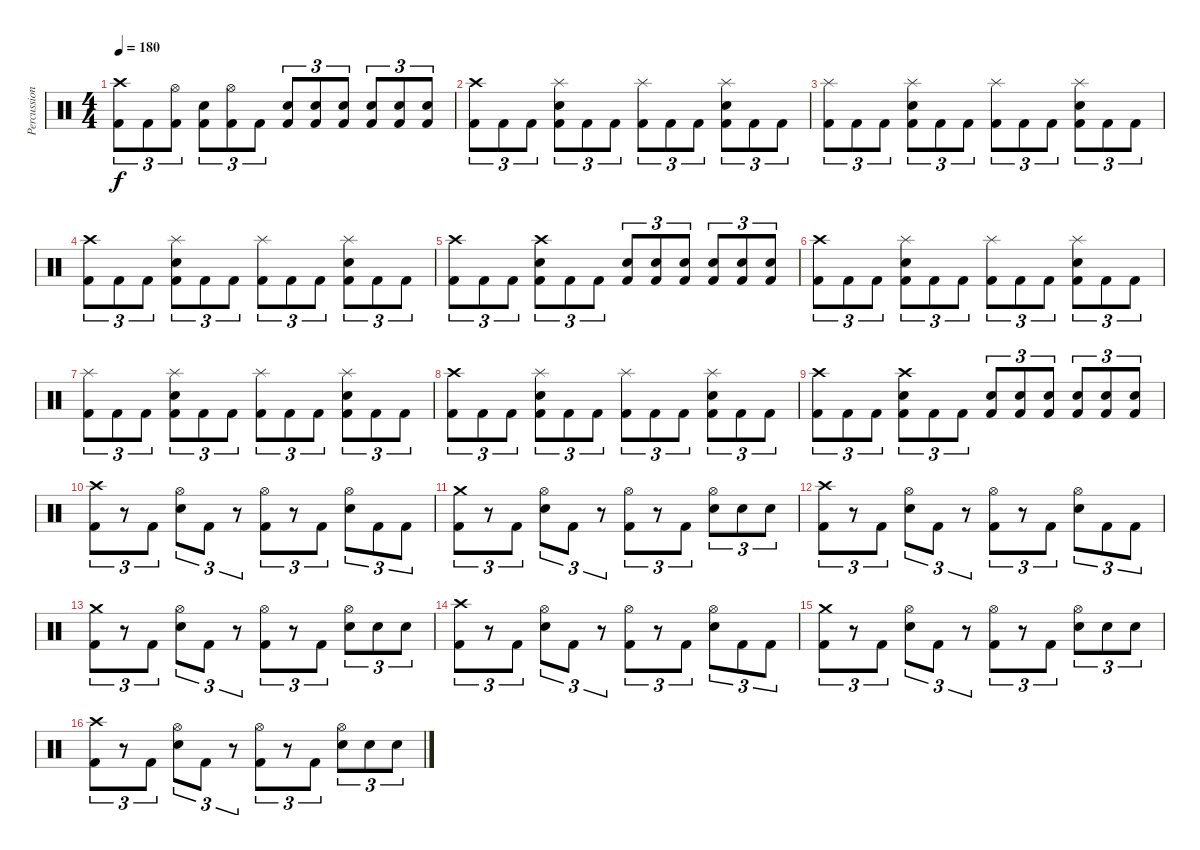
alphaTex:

\track ("Percussion" "Percussion") {instrument percussion}
\staff {score}
\articulation defaults
\ts (4 4)
\tempo 180
\clef neutral
\ks c
("Crash high (hit)" "Kick (hit) 2").8{tu (3 2) dy f} "Kick (hit) 2".8{tu (3 2)} ("Hi-Hat (open)" "Kick (hit) 2").8{tu (3 2)} ("Electric Snare (hit)" "Kick (hit) 2").8{tu (3 2)} ("Hi-Hat (open)" "Kick (hit) 2").8{tu (3 2)} "Kick (hit) 2".8{tu (3 2)} ("Electric Snare (hit)" "Kick (hit) 2").8{tu (3 2)} ("Electric Snare (hit)" "Kick (hit) 2").8{tu (3 2)} ("Electric Snare (hit)" "Kick (hit) 2").8{tu (3 2)} ("Electric Snare (hit)" "Kick (hit) 2").8{tu (3 2)} ("Electric Snare (hit)" "Kick (hit) 2").8{tu (3 2)} ("Electric Snare (hit)" "Kick (hit) 2").8{tu (3 2)} |
("Crash high (hit)" "Kick (hit) 2").8{tu (3 2)} "Kick (hit) 2".8{tu (3 2)} "Kick (hit) 2".8{tu (3 2)} ("Splash (hit)" "Electric Snare (hit)" "Kick (hit) 2").8{tu (3 2)} "Kick (hit) 2".8{tu (3 2)} "Kick (hit) 2".8{tu (3 2)} ("Splash (hit)" "Kick (hit) 2").8{tu (3 2)} "Kick (hit) 2".8{tu (3 2)} "Kick (hit) 2".8{tu (3 2)} ("Splash (hit)" "Electric Snare (hit)" "Kick (hit) 2").8{tu (3 2)} "Kick (hit) 2".8{tu (3 2)} "Kick (hit) 2".8{tu (3 2)} |
("Splash (hit)" "Kick (hit) 2").8{tu (3 2)} "Kick (hit) 2".8{tu (3 2)} "Kick (hit) 2".8{tu (3 2)} ("Splash (hit)" "Electric Snare (hit)" "Kick (hit) 2").8{tu (3 2)} "Kick (hit) 2".8{tu (3 2)} "Kick (hit) 2".8{tu (3 2)} ("Splash (hit)" "Kick (hit) 2").8{tu (3 2)} "Kick (hit) 2".8{tu (3 2)} "Kick (hit) 2".8{tu (3 2)} ("Splash (hit)" "Electric Snare (hit)" "Kick (hit) 2").8{tu (3 2)} "Kick (hit) 2".8{tu (3 2)} "Kick (hit) 2".8{tu (3 2)} |
("Crash high (hit)" "Kick (hit) 2").8{tu (3 2)} "Kick (hit) 2".8{tu (3 2)} "Kick (hit) 2".8{tu (3 2)} ("Splash (hit)" "Electric Snare (hit)" "Kick (hit) 2").8{tu (3 2)} "Kick (hit) 2".8{tu (3 2)} "Kick (hit) 2".8{tu (3 2)} ("Splash (hit)" "Kick (hit) 2").8{tu (3 2)} "Kick (hit) 2".8{tu (3 2)} "Kick (hit) 2".8{tu (3 2)} ("Splash (hit)" "Electric Snare (hit)" "Kick (hit) 2").8{tu (3 2)} "Kick (hit) 2".8{tu (3 2)} "Kick (hit) 2".8{tu (3 2)} |
("Crash high (hit)" "Kick (hit) 2").8{tu (3 2)} "Kick (hit) 2".8{tu (3 2)} "Kick (hit) 2".8{tu (3 2)} ("Crash high (hit)" "Electric Snare (hit)" "Kick (hit) 2").8{tu (3 2)} "Kick (hit) 2".8{tu (3 2)} "Kick (hit) 2".8{tu (3 2)} ("Electric Snare (hit)" "Kick (hit) 2").8{tu (3 2)} ("Electric Snare (hit)" "Kick (hit) 2").8{tu (3 2)} ("Electric Snare (hit)" "Kick (hit) 2").8{tu (3 2)} ("Electric Snare (hit)" "Kick (hit) 2").8{tu (3 2)} ("Electric Snare (hit)" "Kick (hit) 2").8{tu (3 2)} ("Electric Snare (hit)" "Kick (hit) 2").8{tu (3 2)} |
("Crash high (hit)" "Kick (hit) 2").8{tu (3 2)} "Kick (hit) 2".8{tu (3 2)} "Kick (hit) 2".8{tu (3 2)} ("Splash (hit)" "Electric Snare (hit)" "Kick (hit) 2").8{tu (3 2)} "Kick (hit) 2".8{tu (3 2)} "Kick (hit) 2".8{tu (3 2)} ("Splash (hit)" "Kick (hit) 2").8{tu (3 2)} "Kick (hit) 2".8{tu (3 2)} "Kick (hit) 2".8{tu (3 2)} ("Splash (hit)" "Electric Snare (hit)" "Kick (hit) 2").8{tu (3 2)} "Kick (hit) 2".8{tu (3 2)} "Kick (hit) 2".8{tu (3 2)} |
("Splash (hit)" "Kick (hit) 2").8{tu (3 2)} "Kick (hit) 2".8{tu (3 2)} "Kick (hit) 2".8{tu (3 2)} ("Splash (hit)" "Electric Snare (hit)" "Kick (hit) 2").8{tu (3 2)} "Kick (hit) 2".8{tu (3 2)} "Kick (hit) 2".8{tu (3 2)} ("Splash (hit)" "Kick (hit) 2").8{tu (3 2)} "Kick (hit) 2".8{tu (3 2)} "Kick (hit) 2".8{tu (3 2)} ("Splash (hit)" "Electric Snare (hit)" "Kick (hit) 2").8{tu (3 2)} "Kick (hit) 2".8{tu (3 2)} "Kick (hit) 2".8{tu (3 2)} |
("Crash high (hit)" "Kick (hit) 2").8{tu (3 2)} "Kick (hit) 2".8{tu (3 2)} "Kick (hit) 2".8{tu (3 2)} ("Splash (hit)" "Electric Snare (hit)" "Kick (hit) 2").8{tu (3 2)} "Kick (hit) 2".8{tu (3 2)} "Kick (hit) 2".8{tu (3 2)} ("Splash (hit)" "Kick (hit) 2").8{tu (3 2)} "Kick (hit) 2".8{tu (3 2)} "Kick (hit) 2".8{tu (3 2)} ("Splash (hit)" "Electric Snare (hit)" "Kick (hit) 2").8{tu (3 2)} "Kick (hit) 2".8{tu (3 2)} "Kick (hit) 2".8{tu (3 2)} |
("Crash high (hit)" "Kick (hit) 2").8{tu (3 2)} "Kick (hit) 2".8{tu (3 2)} "Kick (hit) 2".8{tu (3 2)} ("Crash high (hit)" "Electric Snare (hit)" "Kick (hit) 2").8{tu (3 2)} "Kick (hit) 2".8{tu (3 2)} "Kick (hit) 2".8{tu (3 2)} ("Electric Snare (hit)" "Kick (hit) 2").8{tu (3 2)} ("Electric Snare (hit)" "Kick (hit) 2").8{tu (3 2)} ("Electric Snare (hit)" "Kick (hit) 2").8{tu (3 2)} ("Electric Snare (hit)" "Kick (hit) 2").8{tu (3 2)} ("Electric Snare (hit)" "Kick (hit) 2").8{tu (3 2)} ("Electric Snare (hit)" "Kick (hit) 2").8{tu (3 2)} |
("Crash high (hit)" "Kick (hit) 2").8{tu (3 2)} r.8{tu (3 2)} "Kick (hit) 2".8{tu (3 2)} ("Hi-Hat (open)" "Electric Snare (hit)").8{tu (3 2)} "Kick (hit) 2".8{tu (3 2)} r.8{tu (3 2)} ("Hi-Hat (open)" "Kick (hit) 2").8{tu (3 2)} r.8{tu (3 2)} "Kick (hit) 2".8{tu (3 2)} ("Hi-Hat (open)" "Electric Snare (hit)").8{tu (3 2)} "Kick (hit) 2".8{tu (3 2)} "Kick (hit) 2".8{tu (3 2)} |
("Crash medium (hit)" "Kick (hit) 2").8{tu (3 2)} r.8{tu (3 2)} "Kick (hit) 2".8{tu (3 2)} ("Hi-Hat (open)" "Electric Snare (hit)").8{tu (3 2)} "Kick (hit) 2".8{tu (3 2)} r.8{tu (3 2)} ("Hi-Hat (open)" "Kick (hit) 2").8{tu (3 2)} r.8{tu (3 2)} "Kick (hit) 2".8{tu (3 2)} ("Hi-Hat (open)" "Electric Snare (hit)").8{tu (3 2)} "Electric Snare (hit)".8{tu (3 2)} "Electric Snare (hit)".8{tu (3 2)} |
("Crash high (hit)" "Kick (hit) 2").8{tu (3 2)} r.8{tu (3 2)} "Kick (hit) 2".8{tu (3 2)} ("Hi-Hat (open)" "Electric Snare (hit)").8{tu (3 2)} "Kick (hit) 2".8{tu (3 2)} r.8{tu (3 2)} ("Hi-Hat (open)" "Kick (hit) 2").8{tu (3 2)} r.8{tu (3 2)} "Kick (hit) 2".8{tu (3 2)} ("Hi-Hat (open)" "Electric Snare (hit)").8{tu (3 2)} "Kick (hit) 2".8{tu (3 2)} "Kick (hit) 2".8{tu (3 2)} |
("Crash medium (hit)" "Kick (hit) 2").8{tu (3 2)} r.8{tu (3 2)} "Kick (hit) 2".8{tu (3 2)} ("Hi-Hat (open)" "Electric Snare (hit)").8{tu (3 2)} "Kick (hit) 2".8{tu (3 2)} r.8{tu (3 2)} ("Hi-Hat (open)" "Kick (hit) 2").8{tu (3 2)} r.8{tu (3 2)} "Kick (hit) 2".8{tu (3 2)} ("Hi-Hat (open)" "Electric Snare (hit)").8{tu (3 2)} "Electric Snare (hit)".8{tu (3 2)} "Electric Snare (hit)".8{tu (3 2)} |
("Crash high (hit)" "Kick (hit) 2").8{tu (3 2)} r.8{tu (3 2)} "Kick (hit) 2".8{tu (3 2)} ("Hi-Hat (open)" "Electric Snare (hit)").8{tu (3 2)} "Kick (hit) 2".8{tu (3 2)} r.8{tu (3 2)} ("Hi-Hat (open)" "Kick (hit) 2").8{tu (3 2)} r.8{tu (3 2)} "Kick (hit) 2".8{tu (3 2)} ("Hi-Hat (open)" "Electric Snare (hit)").8{tu (3 2)} "Kick (hit) 2".8{tu (3 2)} "Kick (hit) 2".8{tu (3 2)} |
("Crash medium (hit)" "Kick (hit) 2").8{tu (3 2)} r.8{tu (3 2)} "Kick (hit) 2".8{tu (3 2)} ("Hi-Hat (open)" "Electric Snare (hit)").8{tu (3 2)} "Kick (hit) 2".8{tu (3 2)} r.8{tu (3 2)} ("Hi-Hat (open)" "Kick (hit) 2").8{tu (3 2)} r.8{tu (3 2)} "Kick (hit) 2".8{tu (3 2)} ("Hi-Hat (open)" "Electric Snare (hit)").8{tu (3 2)} "Electric Snare (hit)".8{tu (3 2)} "Electric Snare (hit)".8{tu (3 2)} |
("Crash high (hit)" "Kick (hit) 2").8{tu (3 2)} r.8{tu (3 2)} "Kick (hit) 2".8{tu (3 2)} ("Hi-Hat (open)" "Electric Snare (hit)").8{tu (3 2)} "Kick (hit) 2".8{tu (3 2)} r.8{tu (3 2)} ("Hi-Hat (open)" "Kick (hit) 2").8{tu (3 2)} r.8{tu (3 2)} "Kick (hit) 2".8{tu (3 2)} ("Hi-Hat (open)" "Electric Snare (hit)").8{tu (3 2)} "Electric Snare (hit)".8{tu (3 2)} "Electric Snare (hit)".8{tu (3 2)}
